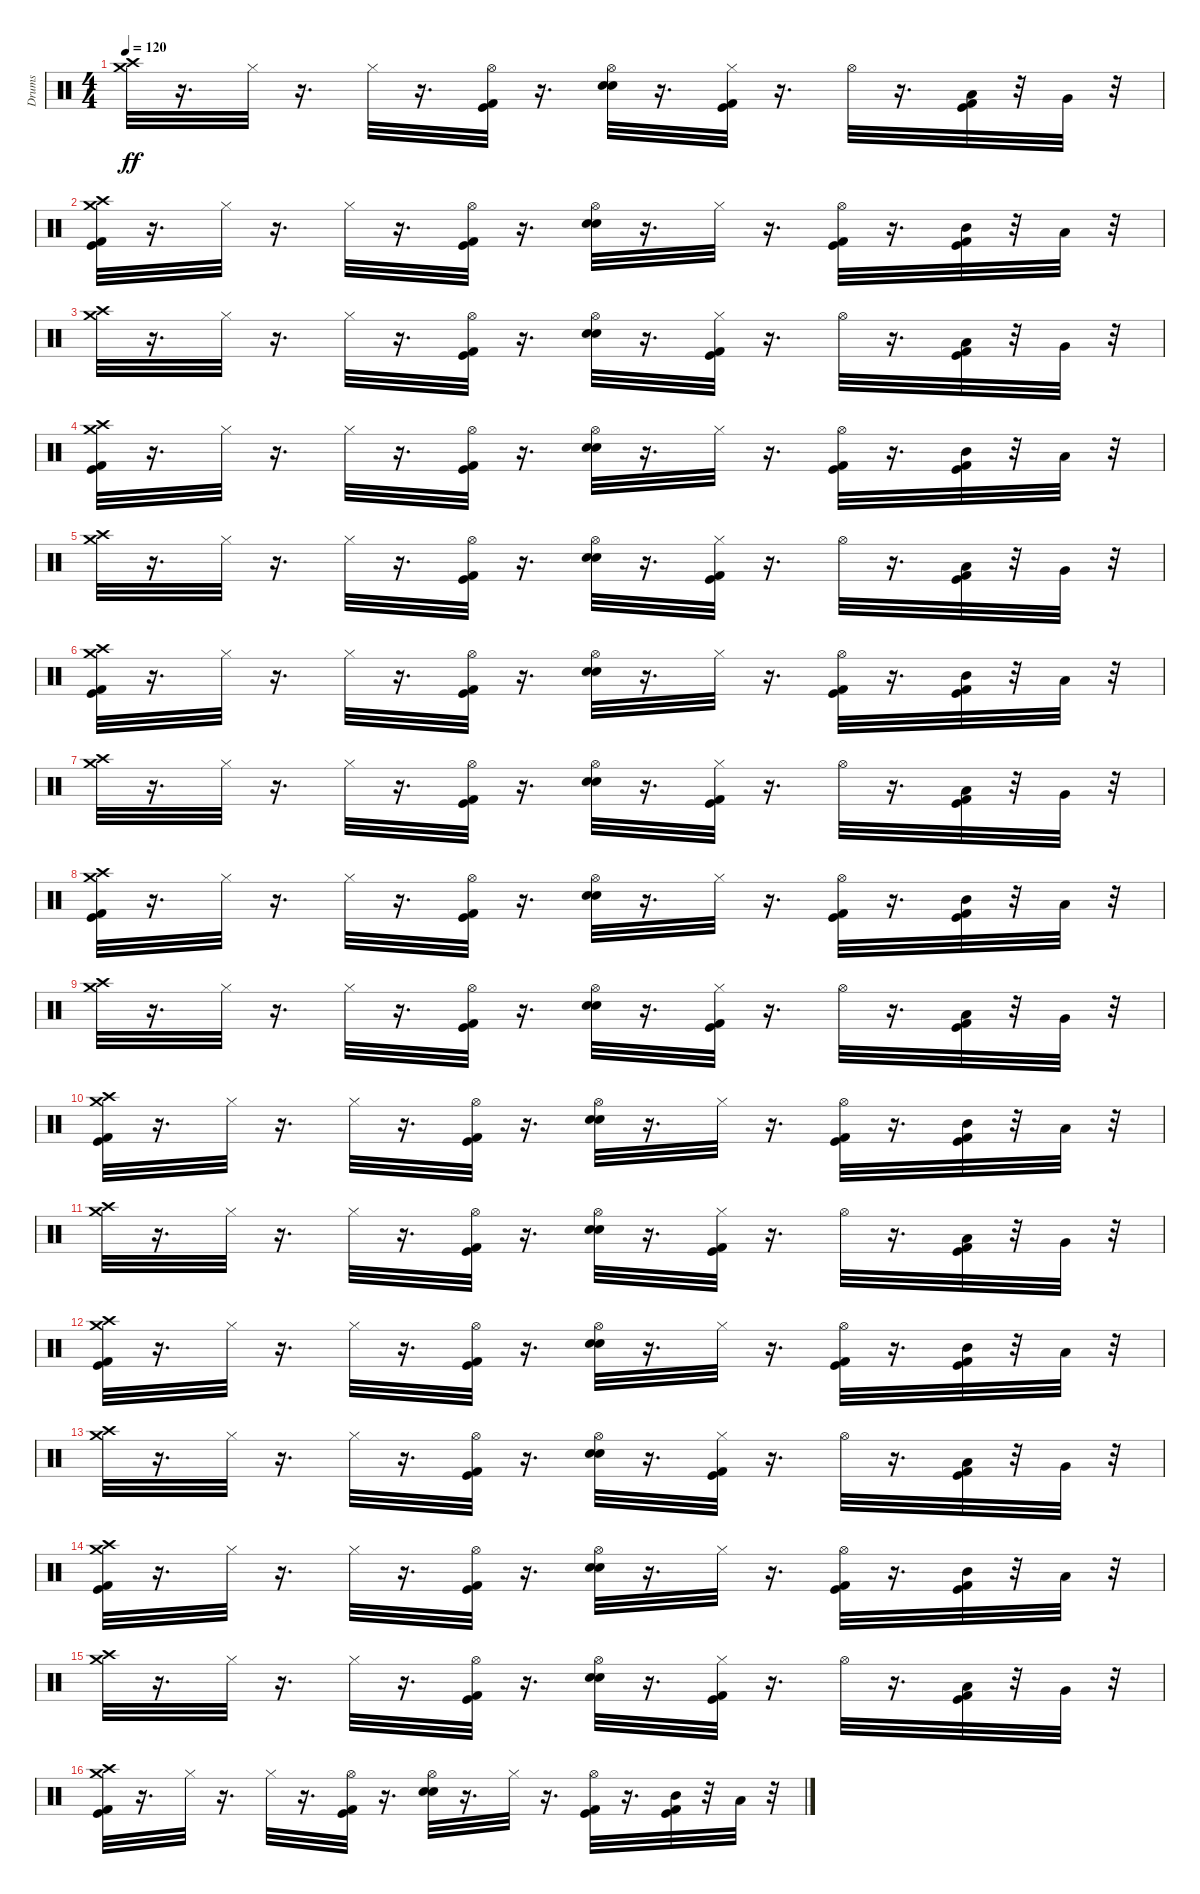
\track ("Drums" "Drums") {instrument percussion}
\staff {score}
\articulation defaults
\ts (4 4)
\tempo 120
\clef neutral
\ks c
("Crash high (hit)" "Crash medium (hit)").32{dy ff} r.16{d} "Hi-Hat (closed)".32 r.16{d} "Hi-Hat (closed)".32 r.16{d} ("Kick (hit) 2" "Kick (hit)" "Hi-Hat (open)").32 r.16{d} ("Hi-Hat (open)" "Electric Snare (hit)" "Snare (hit) 2").32 r.16{d} ("Kick (hit) 2" "Hi-Hat (closed)" "Kick (hit)").32 r.16{d} "Hi-Hat (open)".32 r.16{d} ("Low Tom (hit)" "Kick (hit)" "Kick (hit) 2").32 r.32 "Very Low Tom (hit)".32 r.32 |
("Kick (hit)" "Crash high (hit)" "Kick (hit) 2" "Crash medium (hit)").32 r.16{d} "Hi-Hat (closed)".32 r.16{d} "Hi-Hat (closed)".32 r.16{d} ("Kick (hit)" "Hi-Hat (open)" "Kick (hit) 2").32 r.16{d} ("Hi-Hat (open)" "Snare (hit) 2" "Electric Snare (hit)").32 r.16{d} "Hi-Hat (closed)".32 r.16{d} ("Kick (hit) 2" "Hi-Hat (open)" "Kick (hit)").32 r.16{d} ("Kick (hit) 2" "Mid Tom (hit)" "Kick (hit)").32 r.32 "Low Tom (hit)".32 r.32 |
("Crash high (hit)" "Crash medium (hit)").32 r.16{d} "Hi-Hat (closed)".32 r.16{d} "Hi-Hat (closed)".32 r.16{d} ("Hi-Hat (open)" "Kick (hit) 2" "Kick (hit)").32 r.16{d} ("Hi-Hat (open)" "Snare (hit) 2" "Electric Snare (hit)").32 r.16{d} ("Kick (hit)" "Hi-Hat (closed)" "Kick (hit) 2").32 r.16{d} "Hi-Hat (open)".32 r.16{d} ("Kick (hit)" "Kick (hit) 2" "Low Tom (hit)").32 r.32 "Very Low Tom (hit)".32 r.32 |
("Crash medium (hit)" "Crash high (hit)" "Kick (hit) 2" "Kick (hit)").32 r.16{d} "Hi-Hat (closed)".32 r.16{d} "Hi-Hat (closed)".32 r.16{d} ("Hi-Hat (open)" "Kick (hit) 2" "Kick (hit)").32 r.16{d} ("Electric Snare (hit)" "Hi-Hat (open)" "Snare (hit) 2").32 r.16{d} "Hi-Hat (closed)".32 r.16{d} ("Kick (hit) 2" "Kick (hit)" "Hi-Hat (open)").32 r.16{d} ("Mid Tom (hit)" "Kick (hit)" "Kick (hit) 2").32 r.32 "Low Tom (hit)".32 r.32 |
("Crash medium (hit)" "Crash high (hit)").32 r.16{d} "Hi-Hat (closed)".32 r.16{d} "Hi-Hat (closed)".32 r.16{d} ("Kick (hit) 2" "Kick (hit)" "Hi-Hat (open)").32 r.16{d} ("Hi-Hat (open)" "Snare (hit) 2" "Electric Snare (hit)").32 r.16{d} ("Hi-Hat (closed)" "Kick (hit) 2" "Kick (hit)").32 r.16{d} "Hi-Hat (open)".32 r.16{d} ("Low Tom (hit)" "Kick (hit) 2" "Kick (hit)").32 r.32 "Very Low Tom (hit)".32 r.32 |
("Kick (hit)" "Kick (hit) 2" "Crash high (hit)" "Crash medium (hit)").32 r.16{d} "Hi-Hat (closed)".32 r.16{d} "Hi-Hat (closed)".32 r.16{d} ("Kick (hit) 2" "Kick (hit)" "Hi-Hat (open)").32 r.16{d} ("Snare (hit) 2" "Hi-Hat (open)" "Electric Snare (hit)").32 r.16{d} "Hi-Hat (closed)".32 r.16{d} ("Kick (hit)" "Kick (hit) 2" "Hi-Hat (open)").32 r.16{d} ("Mid Tom (hit)" "Kick (hit)" "Kick (hit) 2").32 r.32 "Low Tom (hit)".32 r.32 |
("Crash medium (hit)" "Crash high (hit)").32 r.16{d} "Hi-Hat (closed)".32 r.16{d} "Hi-Hat (closed)".32 r.16{d} ("Kick (hit)" "Kick (hit) 2" "Hi-Hat (open)").32 r.16{d} ("Electric Snare (hit)" "Hi-Hat (open)" "Snare (hit) 2").32 r.16{d} ("Kick (hit)" "Kick (hit) 2" "Hi-Hat (closed)").32 r.16{d} "Hi-Hat (open)".32 r.16{d} ("Kick (hit)" "Kick (hit) 2" "Low Tom (hit)").32 r.32 "Very Low Tom (hit)".32 r.32 |
("Kick (hit) 2" "Crash high (hit)" "Kick (hit)" "Crash medium (hit)").32 r.16{d} "Hi-Hat (closed)".32 r.16{d} "Hi-Hat (closed)".32 r.16{d} ("Hi-Hat (open)" "Kick (hit)" "Kick (hit) 2").32 r.16{d} ("Hi-Hat (open)" "Snare (hit) 2" "Electric Snare (hit)").32 r.16{d} "Hi-Hat (closed)".32 r.16{d} ("Hi-Hat (open)" "Kick (hit) 2" "Kick (hit)").32 r.16{d} ("Kick (hit) 2" "Mid Tom (hit)" "Kick (hit)").32 r.32 "Low Tom (hit)".32 r.32 |
("Crash high (hit)" "Crash medium (hit)").32 r.16{d} "Hi-Hat (closed)".32 r.16{d} "Hi-Hat (closed)".32 r.16{d} ("Kick (hit)" "Kick (hit) 2" "Hi-Hat (open)").32 r.16{d} ("Hi-Hat (open)" "Electric Snare (hit)" "Snare (hit) 2").32 r.16{d} ("Kick (hit)" "Kick (hit) 2" "Hi-Hat (closed)").32 r.16{d} "Hi-Hat (open)".32 r.16{d} ("Low Tom (hit)" "Kick (hit)" "Kick (hit) 2").32 r.32 "Very Low Tom (hit)".32 r.32 |
("Crash medium (hit)" "Kick (hit) 2" "Crash high (hit)" "Kick (hit)").32 r.16{d} "Hi-Hat (closed)".32 r.16{d} "Hi-Hat (closed)".32 r.16{d} ("Kick (hit)" "Hi-Hat (open)" "Kick (hit) 2").32 r.16{d} ("Electric Snare (hit)" "Snare (hit) 2" "Hi-Hat (open)").32 r.16{d} "Hi-Hat (closed)".32 r.16{d} ("Hi-Hat (open)" "Kick (hit) 2" "Kick (hit)").32 r.16{d} ("Kick (hit) 2" "Mid Tom (hit)" "Kick (hit)").32 r.32 "Low Tom (hit)".32 r.32 |
("Crash high (hit)" "Crash medium (hit)").32 r.16{d} "Hi-Hat (closed)".32 r.16{d} "Hi-Hat (closed)".32 r.16{d} ("Kick (hit) 2" "Kick (hit)" "Hi-Hat (open)").32 r.16{d} ("Snare (hit) 2" "Hi-Hat (open)" "Electric Snare (hit)").32 r.16{d} ("Hi-Hat (closed)" "Kick (hit) 2" "Kick (hit)").32 r.16{d} "Hi-Hat (open)".32 r.16{d} ("Low Tom (hit)" "Kick (hit) 2" "Kick (hit)").32 r.32 "Very Low Tom (hit)".32 r.32 |
("Kick (hit)" "Crash medium (hit)" "Crash high (hit)" "Kick (hit) 2").32 r.16{d} "Hi-Hat (closed)".32 r.16{d} "Hi-Hat (closed)".32 r.16{d} ("Kick (hit)" "Kick (hit) 2" "Hi-Hat (open)").32 r.16{d} ("Hi-Hat (open)" "Snare (hit) 2" "Electric Snare (hit)").32 r.16{d} "Hi-Hat (closed)".32 r.16{d} ("Kick (hit)" "Hi-Hat (open)" "Kick (hit) 2").32 r.16{d} ("Mid Tom (hit)" "Kick (hit)" "Kick (hit) 2").32 r.32 "Low Tom (hit)".32 r.32 |
("Crash high (hit)" "Crash medium (hit)").32 r.16{d} "Hi-Hat (closed)".32 r.16{d} "Hi-Hat (closed)".32 r.16{d} ("Kick (hit) 2" "Hi-Hat (open)" "Kick (hit)").32 r.16{d} ("Hi-Hat (open)" "Electric Snare (hit)" "Snare (hit) 2").32 r.16{d} ("Kick (hit) 2" "Hi-Hat (closed)" "Kick (hit)").32 r.16{d} "Hi-Hat (open)".32 r.16{d} ("Kick (hit) 2" "Low Tom (hit)" "Kick (hit)").32 r.32 "Very Low Tom (hit)".32 r.32 |
("Crash medium (hit)" "Kick (hit) 2" "Crash high (hit)" "Kick (hit)").32 r.16{d} "Hi-Hat (closed)".32 r.16{d} "Hi-Hat (closed)".32 r.16{d} ("Hi-Hat (open)" "Kick (hit) 2" "Kick (hit)").32 r.16{d} ("Electric Snare (hit)" "Hi-Hat (open)" "Snare (hit) 2").32 r.16{d} "Hi-Hat (closed)".32 r.16{d} ("Hi-Hat (open)" "Kick (hit)" "Kick (hit) 2").32 r.16{d} ("Kick (hit)" "Mid Tom (hit)" "Kick (hit) 2").32 r.32 "Low Tom (hit)".32 r.32 |
("Crash medium (hit)" "Crash high (hit)").32 r.16{d} "Hi-Hat (closed)".32 r.16{d} "Hi-Hat (closed)".32 r.16{d} ("Kick (hit)" "Hi-Hat (open)" "Kick (hit) 2").32 r.16{d} ("Electric Snare (hit)" "Hi-Hat (open)" "Snare (hit) 2").32 r.16{d} ("Kick (hit)" "Hi-Hat (closed)" "Kick (hit) 2").32 r.16{d} "Hi-Hat (open)".32 r.16{d} ("Kick (hit)" "Low Tom (hit)" "Kick (hit) 2").32 r.32 "Very Low Tom (hit)".32 r.32 |
("Crash high (hit)" "Kick (hit)" "Kick (hit) 2" "Crash medium (hit)").32 r.16{d} "Hi-Hat (closed)".32 r.16{d} "Hi-Hat (closed)".32 r.16{d} ("Kick (hit) 2" "Hi-Hat (open)" "Kick (hit)").32 r.16{d} ("Hi-Hat (open)" "Snare (hit) 2" "Electric Snare (hit)").32 r.16{d} "Hi-Hat (closed)".32 r.16{d} ("Kick (hit)" "Hi-Hat (open)" "Kick (hit) 2").32 r.16{d} ("Mid Tom (hit)" "Kick (hit) 2" "Kick (hit)").32 r.32 "Low Tom (hit)".32 r.32
